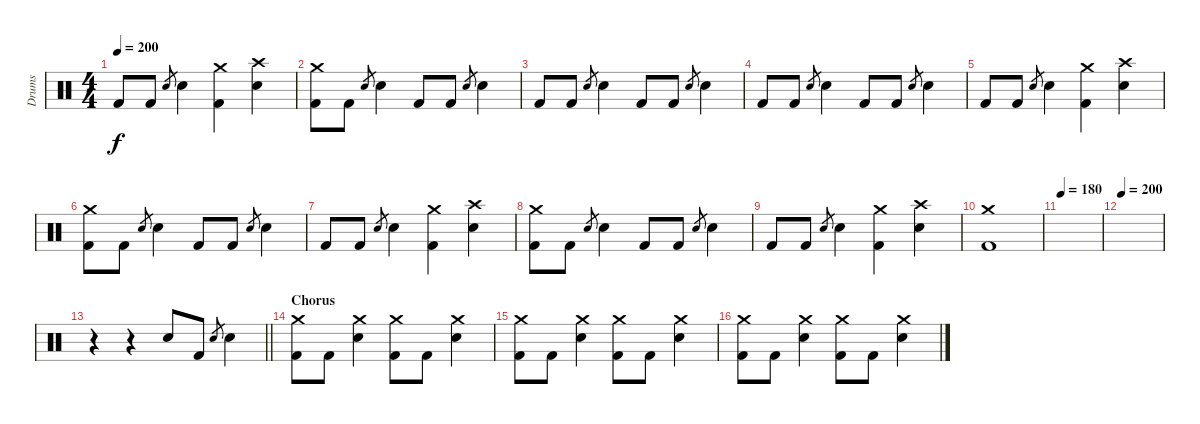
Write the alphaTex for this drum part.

\track ("Drums" "Drums") {instrument percussion}
\staff {score}
\articulation defaults
\ts (4 4)
\tempo 200
\clef neutral
\ks c "Kick (hit) 2".8{dy f} "Kick (hit) 2".8 "Electric Snare (hit)".8{gr} "Electric Snare (hit)".4
("Crash medium (hit)" "Kick (hit) 2").4 ("Crash high (hit)" "Electric Snare (hit)").4 |
("Crash medium (hit)" "Kick (hit) 2").8 "Kick (hit) 2".8 "Electric Snare (hit)".8{gr} "Electric Snare (hit)".4 "Kick (hit) 2".8 "Kick (hit) 2".8 "Electric Snare (hit)".8{gr} "Electric Snare (hit)".4 |
"Kick (hit) 2".8 "Kick (hit) 2".8 "Electric Snare (hit)".8{gr} "Electric Snare (hit)".4 "Kick (hit) 2".8 "Kick (hit) 2".8 "Electric Snare (hit)".8{gr} "Electric Snare (hit)".4 |
"Kick (hit) 2".8 "Kick (hit) 2".8 "Electric Snare (hit)".8{gr} "Electric Snare (hit)".4 "Kick (hit) 2".8 "Kick (hit) 2".8 "Electric Snare (hit)".8{gr} "Electric Snare (hit)".4 |
"Kick (hit) 2".8 "Kick (hit) 2".8 "Electric Snare (hit)".8{gr} "Electric Snare (hit)".4 ("Crash medium (hit)" "Kick (hit) 2").4 ("Crash high (hit)" "Electric Snare (hit)").4 |
("Crash medium (hit)" "Kick (hit) 2").8 "Kick (hit) 2".8 "Electric Snare (hit)".8{gr} "Electric Snare (hit)".4 "Kick (hit) 2".8 "Kick (hit) 2".8 "Electric Snare (hit)".8{gr} "Electric Snare (hit)".4 |
"Kick (hit) 2".8 "Kick (hit) 2".8 "Electric Snare (hit)".8{gr} "Electric Snare (hit)".4 ("Crash medium (hit)" "Kick (hit) 2").4 ("Crash high (hit)" "Electric Snare (hit)").4 |
("Crash medium (hit)" "Kick (hit) 2").8 "Kick (hit) 2".8 "Electric Snare (hit)".8{gr} "Electric Snare (hit)".4 "Kick (hit) 2".8 "Kick (hit) 2".8 "Electric Snare (hit)".8{gr} "Electric Snare (hit)".4 |
"Kick (hit) 2".8 "Kick (hit) 2".8 "Electric Snare (hit)".8{gr} "Electric Snare (hit)".4 ("Crash medium (hit)" "Kick (hit) 2").4 ("Crash high (hit)" "Electric Snare (hit)").4 |
("Crash medium (hit)" "Kick (hit) 2").1 |
\tempo 180
|
\tempo 200
|
\barLineRight lightlight
r.4 r.4 "Electric Snare (hit)".8 "Kick (hit) 2".8 "Electric Snare (hit)".8{gr} "Electric Snare (hit)".4 |
\section ("" "Chorus")
("Crash medium (hit)" "Kick (hit) 2").8 "Kick (hit) 2".8 ("Crash medium (hit)" "Electric Snare (hit)").4 ("Crash medium (hit)" "Kick (hit) 2").8 "Kick (hit) 2".8 ("Crash medium (hit)" "Electric Snare (hit)").4 |
("Crash medium (hit)" "Kick (hit) 2").8 "Kick (hit) 2".8 ("Crash medium (hit)" "Electric Snare (hit)").4 ("Crash medium (hit)" "Kick (hit) 2").8 "Kick (hit) 2".8 ("Crash medium (hit)" "Electric Snare (hit)").4 |
("Crash medium (hit)" "Kick (hit) 2").8 "Kick (hit) 2".8 ("Crash medium (hit)" "Electric Snare (hit)").4 ("Crash medium (hit)" "Kick (hit) 2").8 "Kick (hit) 2".8 ("Crash medium (hit)" "Electric Snare (hit)").4
